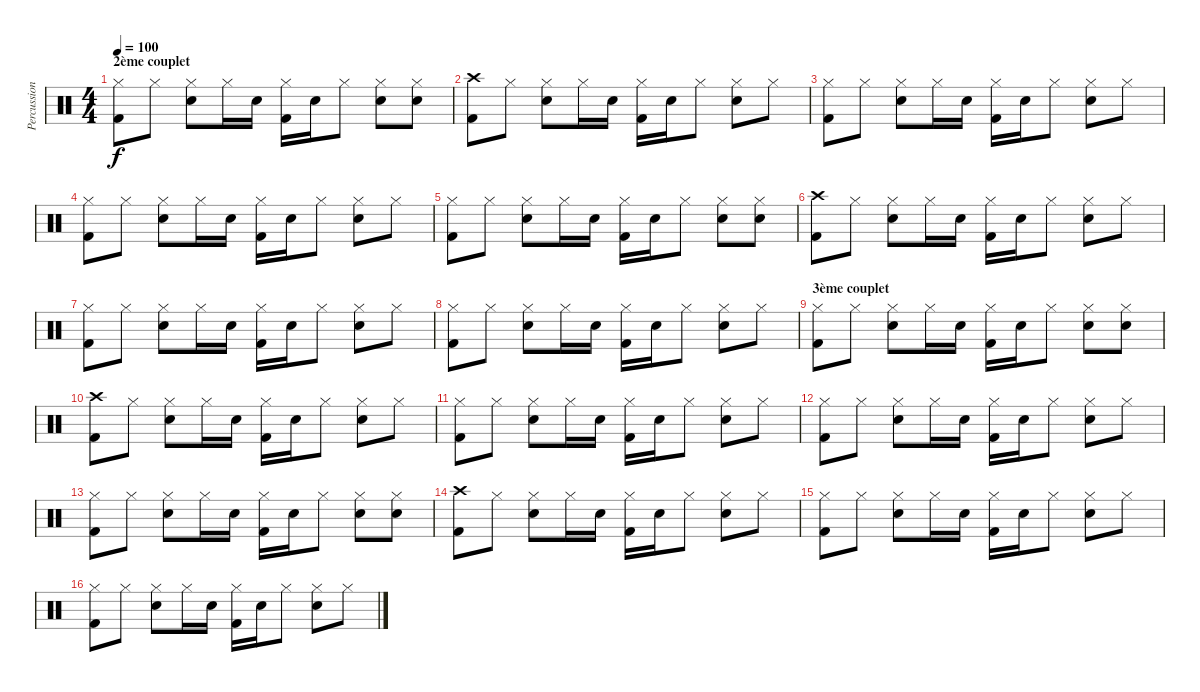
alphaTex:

\track ("Percussions" "Percussion") {instrument percussion}
\staff {score}
\articulation defaults
\ts (4 4)
\section ("" "2ème couplet")
\tempo 100
\clef neutral
\ks c
("Hi-Hat (closed)" "Kick (hit) 2").8{dy f} "Hi-Hat (closed)".8 ("Hi-Hat (closed)" "Electric Snare (hit)").8 "Hi-Hat (closed)".16 "Electric Snare (hit)".16 ("Hi-Hat (closed)" "Kick (hit) 2").16 "Electric Snare (hit)".16 "Hi-Hat (closed)".8 ("Hi-Hat (closed)" "Electric Snare (hit)").8 ("Hi-Hat (closed)" "Electric Snare (hit)").8 |
("Crash high (hit)" "Kick (hit) 2").8 "Hi-Hat (closed)".8 ("Hi-Hat (closed)" "Electric Snare (hit)").8 "Hi-Hat (closed)".16 "Electric Snare (hit)".16 ("Hi-Hat (closed)" "Kick (hit) 2").16 "Electric Snare (hit)".16 "Hi-Hat (closed)".8 ("Hi-Hat (closed)" "Electric Snare (hit)").8 "Hi-Hat (closed)".8 |
("Hi-Hat (closed)" "Kick (hit) 2").8 "Hi-Hat (closed)".8 ("Hi-Hat (closed)" "Electric Snare (hit)").8 "Hi-Hat (closed)".16 "Electric Snare (hit)".16 ("Hi-Hat (closed)" "Kick (hit) 2").16 "Electric Snare (hit)".16 "Hi-Hat (closed)".8 ("Hi-Hat (closed)" "Electric Snare (hit)").8 "Hi-Hat (closed)".8 |
("Hi-Hat (closed)" "Kick (hit) 2").8 "Hi-Hat (closed)".8 ("Hi-Hat (closed)" "Electric Snare (hit)").8 "Hi-Hat (closed)".16 "Electric Snare (hit)".16 ("Hi-Hat (closed)" "Kick (hit) 2").16 "Electric Snare (hit)".16 "Hi-Hat (closed)".8 ("Hi-Hat (closed)" "Electric Snare (hit)").8 "Hi-Hat (closed)".8 |
("Hi-Hat (closed)" "Kick (hit) 2").8 "Hi-Hat (closed)".8 ("Hi-Hat (closed)" "Electric Snare (hit)").8 "Hi-Hat (closed)".16 "Electric Snare (hit)".16 ("Hi-Hat (closed)" "Kick (hit) 2").16 "Electric Snare (hit)".16 "Hi-Hat (closed)".8 ("Hi-Hat (closed)" "Electric Snare (hit)").8 ("Hi-Hat (closed)" "Electric Snare (hit)").8 |
("Crash high (hit)" "Kick (hit) 2").8 "Hi-Hat (closed)".8 ("Hi-Hat (closed)" "Electric Snare (hit)").8 "Hi-Hat (closed)".16 "Electric Snare (hit)".16 ("Hi-Hat (closed)" "Kick (hit) 2").16 "Electric Snare (hit)".16 "Hi-Hat (closed)".8 ("Hi-Hat (closed)" "Electric Snare (hit)").8 "Hi-Hat (closed)".8 |
("Hi-Hat (closed)" "Kick (hit) 2").8 "Hi-Hat (closed)".8 ("Hi-Hat (closed)" "Electric Snare (hit)").8 "Hi-Hat (closed)".16 "Electric Snare (hit)".16 ("Hi-Hat (closed)" "Kick (hit) 2").16 "Electric Snare (hit)".16 "Hi-Hat (closed)".8 ("Hi-Hat (closed)" "Electric Snare (hit)").8 "Hi-Hat (closed)".8 |
("Hi-Hat (closed)" "Kick (hit) 2").8 "Hi-Hat (closed)".8 ("Hi-Hat (closed)" "Electric Snare (hit)").8 "Hi-Hat (closed)".16 "Electric Snare (hit)".16 ("Hi-Hat (closed)" "Kick (hit) 2").16 "Electric Snare (hit)".16 "Hi-Hat (closed)".8 ("Hi-Hat (closed)" "Electric Snare (hit)").8 "Hi-Hat (closed)".8 |
\section ("" "3ème couplet")
("Hi-Hat (closed)" "Kick (hit) 2").8 "Hi-Hat (closed)".8 ("Hi-Hat (closed)" "Electric Snare (hit)").8 "Hi-Hat (closed)".16 "Electric Snare (hit)".16 ("Hi-Hat (closed)" "Kick (hit) 2").16 "Electric Snare (hit)".16 "Hi-Hat (closed)".8 ("Hi-Hat (closed)" "Electric Snare (hit)").8 ("Hi-Hat (closed)" "Electric Snare (hit)").8 |
("Crash high (hit)" "Kick (hit) 2").8 "Hi-Hat (closed)".8 ("Hi-Hat (closed)" "Electric Snare (hit)").8 "Hi-Hat (closed)".16 "Electric Snare (hit)".16 ("Hi-Hat (closed)" "Kick (hit) 2").16 "Electric Snare (hit)".16 "Hi-Hat (closed)".8 ("Hi-Hat (closed)" "Electric Snare (hit)").8 "Hi-Hat (closed)".8 |
("Hi-Hat (closed)" "Kick (hit) 2").8 "Hi-Hat (closed)".8 ("Hi-Hat (closed)" "Electric Snare (hit)").8 "Hi-Hat (closed)".16 "Electric Snare (hit)".16 ("Hi-Hat (closed)" "Kick (hit) 2").16 "Electric Snare (hit)".16 "Hi-Hat (closed)".8 ("Hi-Hat (closed)" "Electric Snare (hit)").8 "Hi-Hat (closed)".8 |
("Hi-Hat (closed)" "Kick (hit) 2").8 "Hi-Hat (closed)".8 ("Hi-Hat (closed)" "Electric Snare (hit)").8 "Hi-Hat (closed)".16 "Electric Snare (hit)".16 ("Hi-Hat (closed)" "Kick (hit) 2").16 "Electric Snare (hit)".16 "Hi-Hat (closed)".8 ("Hi-Hat (closed)" "Electric Snare (hit)").8 "Hi-Hat (closed)".8 |
("Hi-Hat (closed)" "Kick (hit) 2").8 "Hi-Hat (closed)".8 ("Hi-Hat (closed)" "Electric Snare (hit)").8 "Hi-Hat (closed)".16 "Electric Snare (hit)".16 ("Hi-Hat (closed)" "Kick (hit) 2").16 "Electric Snare (hit)".16 "Hi-Hat (closed)".8 ("Hi-Hat (closed)" "Electric Snare (hit)").8 ("Hi-Hat (closed)" "Electric Snare (hit)").8 |
("Crash high (hit)" "Kick (hit) 2").8 "Hi-Hat (closed)".8 ("Hi-Hat (closed)" "Electric Snare (hit)").8 "Hi-Hat (closed)".16 "Electric Snare (hit)".16 ("Hi-Hat (closed)" "Kick (hit) 2").16 "Electric Snare (hit)".16 "Hi-Hat (closed)".8 ("Hi-Hat (closed)" "Electric Snare (hit)").8 "Hi-Hat (closed)".8 |
("Hi-Hat (closed)" "Kick (hit) 2").8 "Hi-Hat (closed)".8 ("Hi-Hat (closed)" "Electric Snare (hit)").8 "Hi-Hat (closed)".16 "Electric Snare (hit)".16 ("Hi-Hat (closed)" "Kick (hit) 2").16 "Electric Snare (hit)".16 "Hi-Hat (closed)".8 ("Hi-Hat (closed)" "Electric Snare (hit)").8 "Hi-Hat (closed)".8 |
("Hi-Hat (closed)" "Kick (hit) 2").8 "Hi-Hat (closed)".8 ("Hi-Hat (closed)" "Electric Snare (hit)").8 "Hi-Hat (closed)".16 "Electric Snare (hit)".16 ("Hi-Hat (closed)" "Kick (hit) 2").16 "Electric Snare (hit)".16 "Hi-Hat (closed)".8 ("Hi-Hat (closed)" "Electric Snare (hit)").8 "Hi-Hat (closed)".8
